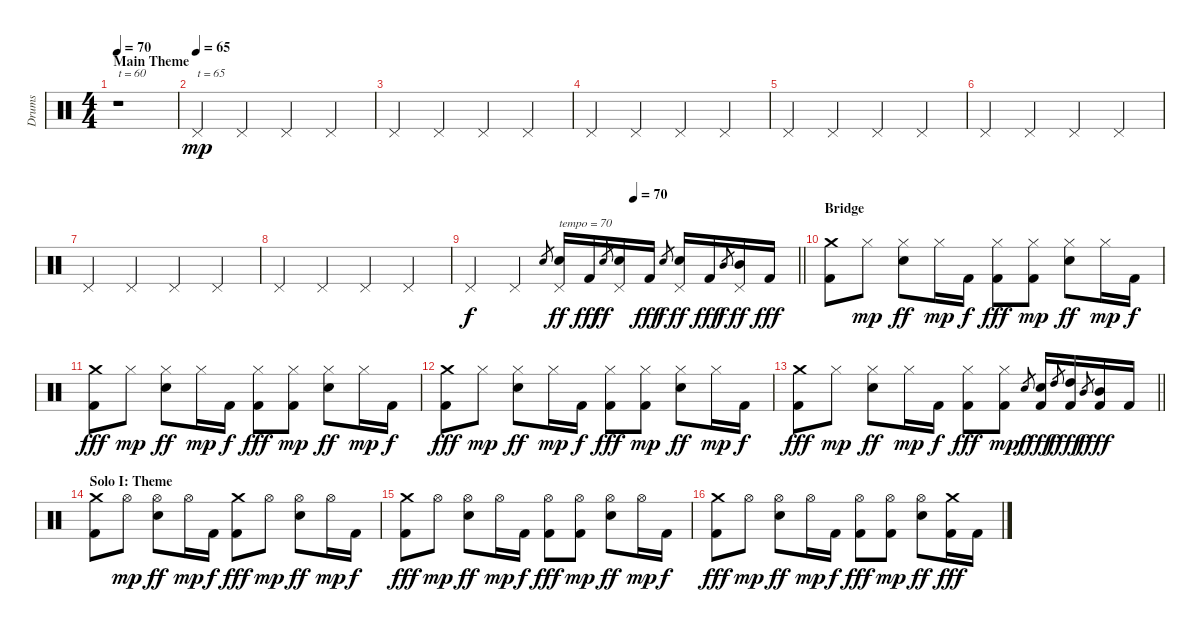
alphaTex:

\track ("Drums" "Drums") {instrument percussion}
\staff {score}
\articulation defaults
\ts (4 4)
\section ("" "Main Theme")
\tempo 70
\tempo 60
\tempo 70
\clef neutral
\ks c
r.1{txt "t = 60" dy mp} |
\tempo (65)
"Pedal Hi-Hat (hit)".4{txt "t = 65"} "Pedal Hi-Hat (hit)".4 "Pedal Hi-Hat (hit)".4 "Pedal Hi-Hat (hit)".4 |
"Pedal Hi-Hat (hit)".4 "Pedal Hi-Hat (hit)".4 "Pedal Hi-Hat (hit)".4 "Pedal Hi-Hat (hit)".4 |
"Pedal Hi-Hat (hit)".4 "Pedal Hi-Hat (hit)".4 "Pedal Hi-Hat (hit)".4 "Pedal Hi-Hat (hit)".4 |
"Pedal Hi-Hat (hit)".4 "Pedal Hi-Hat (hit)".4 "Pedal Hi-Hat (hit)".4 "Pedal Hi-Hat (hit)".4 |
"Pedal Hi-Hat (hit)".4 "Pedal Hi-Hat (hit)".4 "Pedal Hi-Hat (hit)".4 "Pedal Hi-Hat (hit)".4 |
"Pedal Hi-Hat (hit)".4 "Pedal Hi-Hat (hit)".4 "Pedal Hi-Hat (hit)".4 "Pedal Hi-Hat (hit)".4 |
"Pedal Hi-Hat (hit)".4 "Pedal Hi-Hat (hit)".4 "Pedal Hi-Hat (hit)".4 "Pedal Hi-Hat (hit)".4 |
\tempo (70 0.5)
\barLineRight lightlight "Pedal Hi-Hat (hit)".4{dy f} "Pedal Hi-Hat (hit)".4 "Snare (hit) 2".8{gr}
("Pedal Hi-Hat (hit)" "Snare (hit) 2").16{txt "tempo = 70" dy ff} "Kick (hit) 2".16{dy fff} "Snare (hit) 2".8{gr dy ff} ("Pedal Hi-Hat (hit)" "Snare (hit) 2").16 "Kick (hit) 2".16{dy fff} "Snare (hit) 2".8{gr dy f} ("Pedal Hi-Hat (hit)" "Snare (hit) 2").16{dy ff} "Kick (hit) 2".16{dy fff} "Mid Tom (hit)".8{gr dy f} ("Pedal Hi-Hat (hit)" "Mid Tom (hit)").16{dy ff} "Kick (hit) 2".16{dy fff} |
\section ("" "Bridge")
("Crash medium (hit)" "Kick (hit) 2").8 "Hi-Hat (closed)".8{dy mp} ("Hi-Hat (closed)" "Snare (hit) 2").8{dy ff} "Hi-Hat (closed)".16{dy mp} "Kick (hit) 2".16{dy f} ("Hi-Hat (closed)" "Kick (hit) 2").8{dy fff} ("Hi-Hat (closed)" "Kick (hit) 2").8{dy mp} ("Hi-Hat (closed)" "Snare (hit) 2").8{dy ff} "Hi-Hat (closed)".16{dy mp} "Kick (hit) 2".16{dy f} |
("Crash medium (hit)" "Kick (hit) 2").8{dy fff} "Hi-Hat (closed)".8{dy mp} ("Hi-Hat (closed)" "Snare (hit) 2").8{dy ff} "Hi-Hat (closed)".16{dy mp} "Kick (hit) 2".16{dy f} ("Hi-Hat (closed)" "Kick (hit) 2").8{dy fff} ("Hi-Hat (closed)" "Kick (hit) 2").8{dy mp} ("Hi-Hat (closed)" "Snare (hit) 2").8{dy ff} "Hi-Hat (closed)".16{dy mp} "Kick (hit) 2".16{dy f} |
("Crash medium (hit)" "Kick (hit) 2").8{dy fff} "Hi-Hat (closed)".8{dy mp} ("Hi-Hat (closed)" "Snare (hit) 2").8{dy ff} "Hi-Hat (closed)".16{dy mp} "Kick (hit) 2".16{dy f} ("Hi-Hat (closed)" "Kick (hit) 2").8{dy fff} ("Hi-Hat (closed)" "Kick (hit) 2").8{dy mp} ("Hi-Hat (closed)" "Snare (hit) 2").8{dy ff} "Hi-Hat (closed)".16{dy mp} "Kick (hit) 2".16{dy f} |
\barLineRight lightlight
("Crash medium (hit)" "Kick (hit) 2").8{dy fff} "Hi-Hat (closed)".8{dy mp} ("Hi-Hat (closed)" "Snare (hit) 2").8{dy ff} "Hi-Hat (closed)".16{dy mp} "Kick (hit) 2".16{dy f} ("Hi-Hat (closed)" "Kick (hit) 2").8{dy fff} ("Hi-Hat (closed)" "Kick (hit) 2").8{dy mp} "Snare (hit) 2".8{gr dy f} ("Snare (hit) 2" "Kick (hit) 2").16{dy fff} "High Tom (hit)".8{gr dy f} ("High Tom (hit)" "Kick (hit) 2").16{dy fff} "Mid Tom (hit)".8{gr dy f} ("Mid Tom (hit)" "Kick (hit) 2").16{dy fff} "Kick (hit) 2".16 |
\section ("" "Solo I: Theme")
("Crash medium (hit)" "Kick (hit) 2").8 "Hi-Hat (open)".8{dy mp} ("Hi-Hat (open)" "Snare (hit) 2").8{dy ff} "Hi-Hat (open)".16{dy mp} "Kick (hit) 2".16{dy f} ("Crash medium (hit)" "Kick (hit) 2").8{dy fff} "Hi-Hat (open)".8{dy mp} ("Hi-Hat (open)" "Snare (hit) 2").8{dy ff} "Hi-Hat (open)".16{dy mp} "Kick (hit) 2".16{dy f} |
("Crash medium (hit)" "Kick (hit) 2").8{dy fff} "Hi-Hat (open)".8{dy mp} ("Hi-Hat (open)" "Snare (hit) 2").8{dy ff} "Hi-Hat (open)".16{dy mp} "Kick (hit) 2".16{dy f} ("Hi-Hat (open)" "Kick (hit) 2").8{dy fff} ("Hi-Hat (open)" "Kick (hit) 2").8{dy mp} ("Hi-Hat (open)" "Snare (hit) 2").8{dy ff} "Hi-Hat (open)".16{dy mp} "Kick (hit) 2".16{dy f} |
("Crash medium (hit)" "Kick (hit) 2").8{dy fff} "Hi-Hat (open)".8{dy mp} ("Hi-Hat (open)" "Snare (hit) 2").8{dy ff} "Hi-Hat (open)".16{dy mp} "Kick (hit) 2".16{dy f} ("Hi-Hat (open)" "Kick (hit) 2").8{dy fff} ("Hi-Hat (open)" "Kick (hit) 2").8{dy mp} ("Hi-Hat (open)" "Snare (hit) 2").8{dy ff} ("Crash medium (hit)" "Kick (hit) 2").16{dy fff} "Kick (hit) 2".16
